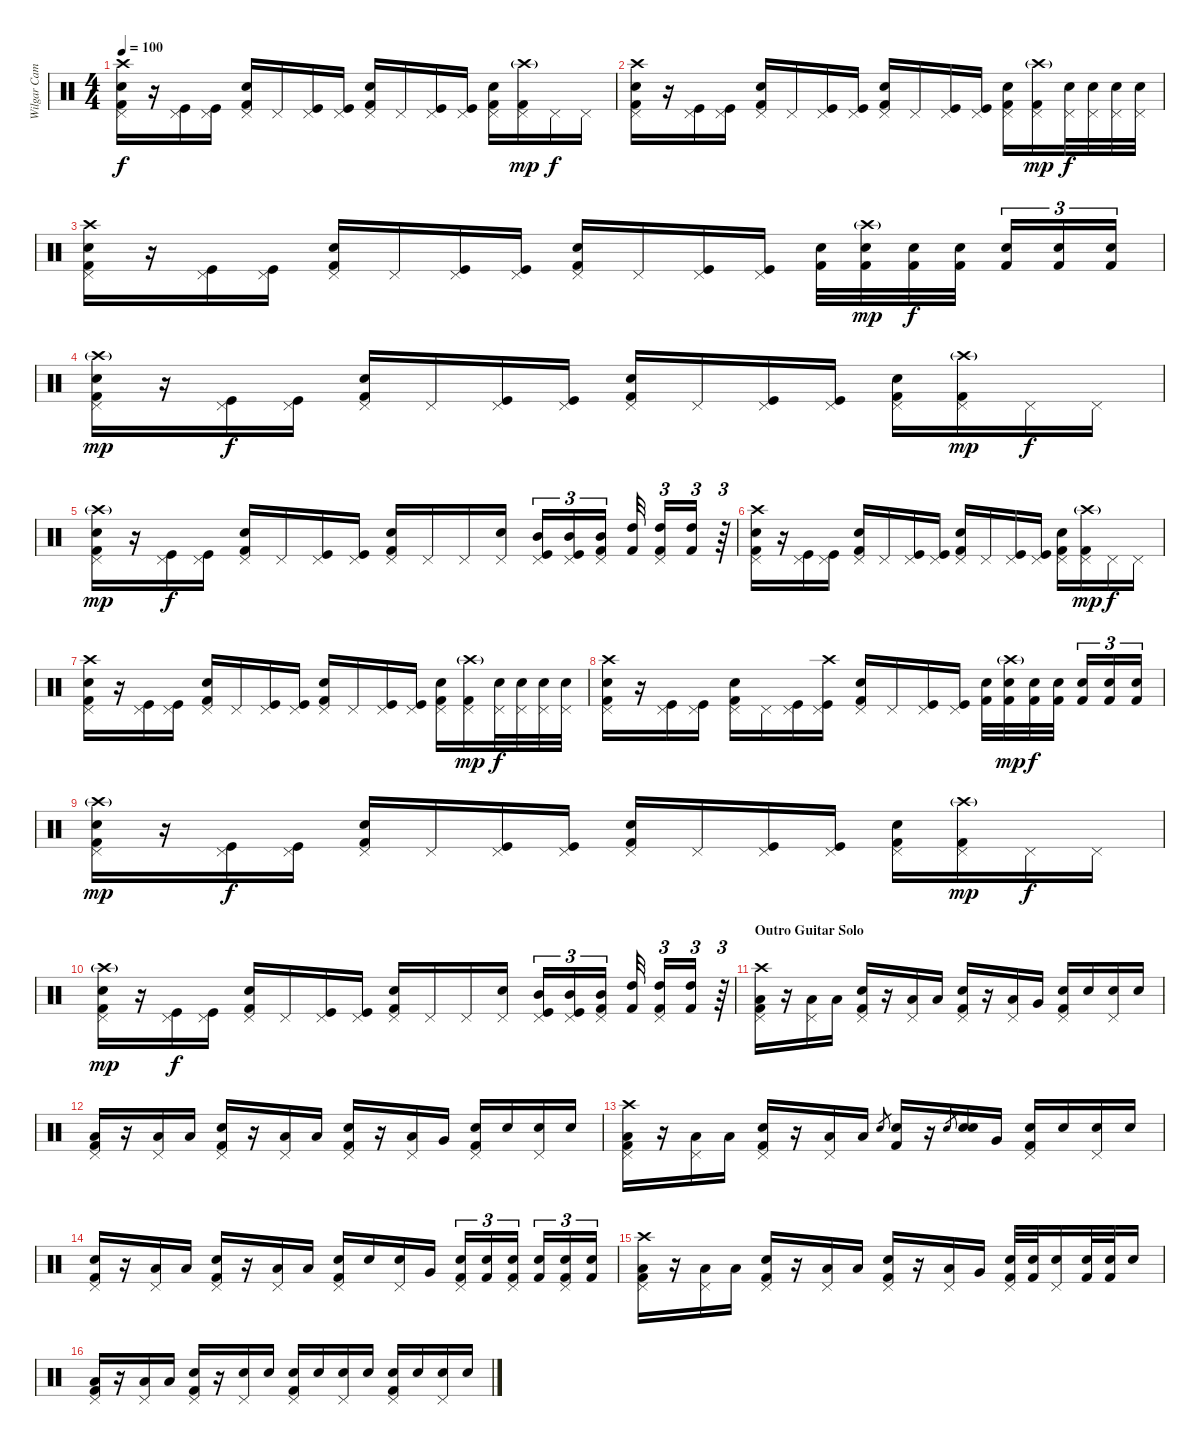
\track ("Wilgar Campbell" "Wilgar Cam") {instrument percussion}
\staff {score}
\articulation defaults
\ts (4 4)
\tempo 100
\clef neutral
\ks c
("Crash high (hit)" "Snare (hit) 2" "Pedal Hi-Hat (hit)" "Kick (hit) 2").16{dy f} r.16 ("Pedal Hi-Hat (hit)" "Kick (hit)").16 ("Pedal Hi-Hat (hit)" "Kick (hit)").16 ("Snare (hit) 2" "Pedal Hi-Hat (hit)" "Kick (hit) 2").16 "Pedal Hi-Hat (hit)".16 ("Pedal Hi-Hat (hit)" "Kick (hit)").16 ("Pedal Hi-Hat (hit)" "Kick (hit)").16 ("Snare (hit) 2" "Pedal Hi-Hat (hit)" "Kick (hit) 2").16 "Pedal Hi-Hat (hit)".16 ("Pedal Hi-Hat (hit)" "Kick (hit)").16 ("Pedal Hi-Hat (hit)" "Kick (hit)").16 ("Snare (hit) 2" "Pedal Hi-Hat (hit)" "Kick (hit) 2").16 ("Crash high (hit)"{g} "Pedal Hi-Hat (hit)" "Kick (hit) 2").16{dy mp} "Pedal Hi-Hat (hit)".16{dy f} "Pedal Hi-Hat (hit)".16 |
("Crash high (hit)" "Snare (hit) 2" "Pedal Hi-Hat (hit)" "Kick (hit) 2").16 r.16 ("Pedal Hi-Hat (hit)" "Kick (hit)").16 ("Pedal Hi-Hat (hit)" "Kick (hit)").16 ("Snare (hit) 2" "Pedal Hi-Hat (hit)" "Kick (hit) 2").16 "Pedal Hi-Hat (hit)".16 ("Pedal Hi-Hat (hit)" "Kick (hit)").16 ("Pedal Hi-Hat (hit)" "Kick (hit)").16 ("Snare (hit) 2" "Pedal Hi-Hat (hit)" "Kick (hit) 2").16 "Pedal Hi-Hat (hit)".16 ("Pedal Hi-Hat (hit)" "Kick (hit)").16 ("Pedal Hi-Hat (hit)" "Kick (hit)").16 ("Snare (hit) 2" "Pedal Hi-Hat (hit)" "Kick (hit) 2").16 ("Crash high (hit)"{g} "Pedal Hi-Hat (hit)" "Kick (hit) 2").16{dy mp} ("Pedal Hi-Hat (hit)" "Electric Snare (hit)").32{dy f} ("Pedal Hi-Hat (hit)" "Electric Snare (hit)").32 ("Pedal Hi-Hat (hit)" "Electric Snare (hit)").32 ("Pedal Hi-Hat (hit)" "Electric Snare (hit)").32 |
("Crash high (hit)" "Snare (hit) 2" "Pedal Hi-Hat (hit)" "Kick (hit) 2").16 r.16 ("Pedal Hi-Hat (hit)" "Kick (hit)").16 ("Pedal Hi-Hat (hit)" "Kick (hit)").16 ("Snare (hit) 2" "Pedal Hi-Hat (hit)" "Kick (hit) 2").16 "Pedal Hi-Hat (hit)".16 ("Pedal Hi-Hat (hit)" "Kick (hit)").16 ("Pedal Hi-Hat (hit)" "Kick (hit)").16 ("Snare (hit) 2" "Pedal Hi-Hat (hit)" "Kick (hit) 2").16 "Pedal Hi-Hat (hit)".16 ("Pedal Hi-Hat (hit)" "Kick (hit)").16 ("Pedal Hi-Hat (hit)" "Kick (hit)").16 ("Snare (hit) 2" "Kick (hit) 2").32 ("Crash high (hit)"{g} "Snare (hit) 2" "Kick (hit) 2").32{dy mp} ("Snare (hit) 2" "Kick (hit) 2").32{dy f} ("Snare (hit) 2" "Kick (hit) 2").32 ("Snare (hit) 2" "Kick (hit) 2").16{tu (3 2)} ("Snare (hit) 2" "Kick (hit) 2").16{tu (3 2)} ("Snare (hit) 2" "Kick (hit) 2").16{tu (3 2)} |
("Crash high (hit)"{g} "Snare (hit) 2" "Pedal Hi-Hat (hit)" "Kick (hit) 2").16{dy mp} r.16 ("Pedal Hi-Hat (hit)" "Kick (hit)").16{dy f} ("Pedal Hi-Hat (hit)" "Kick (hit)").16 ("Snare (hit) 2" "Pedal Hi-Hat (hit)" "Kick (hit) 2").16 "Pedal Hi-Hat (hit)".16 ("Pedal Hi-Hat (hit)" "Kick (hit)").16 ("Pedal Hi-Hat (hit)" "Kick (hit)").16 ("Snare (hit) 2" "Pedal Hi-Hat (hit)" "Kick (hit) 2").16 "Pedal Hi-Hat (hit)".16 ("Pedal Hi-Hat (hit)" "Kick (hit)").16 ("Pedal Hi-Hat (hit)" "Kick (hit)").16 ("Snare (hit) 2" "Pedal Hi-Hat (hit)" "Kick (hit) 2").16 ("Crash high (hit)"{g} "Pedal Hi-Hat (hit)" "Kick (hit) 2").16{dy mp} "Pedal Hi-Hat (hit)".16{dy f} "Pedal Hi-Hat (hit)".16 |
("Crash high (hit)"{g} "Snare (hit) 2" "Pedal Hi-Hat (hit)" "Kick (hit) 2").16{dy mp} r.16 ("Pedal Hi-Hat (hit)" "Kick (hit)").16{dy f} ("Pedal Hi-Hat (hit)" "Kick (hit)").16 ("Snare (hit) 2" "Pedal Hi-Hat (hit)" "Kick (hit) 2").16 "Pedal Hi-Hat (hit)".16 ("Pedal Hi-Hat (hit)" "Kick (hit)").16 ("Pedal Hi-Hat (hit)" "Kick (hit)").16 ("Snare (hit) 2" "Pedal Hi-Hat (hit)" "Kick (hit) 2").16 "Pedal Hi-Hat (hit)".16 "Pedal Hi-Hat (hit)".16 ("Electric Snare (hit)" "Pedal Hi-Hat (hit)").16 ("Mid Tom (hit)" "Pedal Hi-Hat (hit)" "Kick (hit)").16{tu (3 2)} ("Mid Tom (hit)" "Pedal Hi-Hat (hit)" "Kick (hit)").16{tu (3 2)} ("Mid Tom (hit)" "Pedal Hi-Hat (hit)" "Kick (hit) 2").16{tu (3 2)} ("High Tom (hit)" "Kick (hit) 2").32 ("High Tom (hit)" "Pedal Hi-Hat (hit)" "Kick (hit) 2").16{tu (3 2)} ("High Tom (hit)" "Kick (hit) 2").16{tu (3 2)} r.64{tu (3 2)} |
("Crash high (hit)" "Snare (hit) 2" "Pedal Hi-Hat (hit)" "Kick (hit) 2").16 r.16 ("Pedal Hi-Hat (hit)" "Kick (hit)").16 ("Pedal Hi-Hat (hit)" "Kick (hit)").16 ("Snare (hit) 2" "Pedal Hi-Hat (hit)" "Kick (hit) 2").16 "Pedal Hi-Hat (hit)".16 ("Pedal Hi-Hat (hit)" "Kick (hit)").16 ("Pedal Hi-Hat (hit)" "Kick (hit)").16 ("Snare (hit) 2" "Pedal Hi-Hat (hit)" "Kick (hit) 2").16 "Pedal Hi-Hat (hit)".16 ("Pedal Hi-Hat (hit)" "Kick (hit)").16 ("Pedal Hi-Hat (hit)" "Kick (hit)").16 ("Snare (hit) 2" "Pedal Hi-Hat (hit)" "Kick (hit) 2").16 ("Crash high (hit)"{g} "Pedal Hi-Hat (hit)" "Kick (hit) 2").16{dy mp} "Pedal Hi-Hat (hit)".16{dy f} "Pedal Hi-Hat (hit)".16 |
("Crash high (hit)" "Snare (hit) 2" "Pedal Hi-Hat (hit)" "Kick (hit) 2").16 r.16 ("Pedal Hi-Hat (hit)" "Kick (hit)").16 ("Pedal Hi-Hat (hit)" "Kick (hit)").16 ("Snare (hit) 2" "Pedal Hi-Hat (hit)" "Kick (hit) 2").16 "Pedal Hi-Hat (hit)".16 ("Pedal Hi-Hat (hit)" "Kick (hit)").16 ("Pedal Hi-Hat (hit)" "Kick (hit)").16 ("Snare (hit) 2" "Pedal Hi-Hat (hit)" "Kick (hit) 2").16 "Pedal Hi-Hat (hit)".16 ("Pedal Hi-Hat (hit)" "Kick (hit)").16 ("Pedal Hi-Hat (hit)" "Kick (hit)").16 ("Snare (hit) 2" "Pedal Hi-Hat (hit)" "Kick (hit) 2").16 ("Crash high (hit)"{g} "Pedal Hi-Hat (hit)" "Kick (hit) 2").16{dy mp} ("Pedal Hi-Hat (hit)" "Electric Snare (hit)").32{dy f} ("Pedal Hi-Hat (hit)" "Electric Snare (hit)").32 ("Pedal Hi-Hat (hit)" "Electric Snare (hit)").32 ("Pedal Hi-Hat (hit)" "Electric Snare (hit)").32 |
("Crash high (hit)" "Snare (hit) 2" "Pedal Hi-Hat (hit)" "Kick (hit) 2").16 r.16 ("Pedal Hi-Hat (hit)" "Kick (hit)").16 ("Pedal Hi-Hat (hit)" "Kick (hit)").16 ("Snare (hit) 2" "Pedal Hi-Hat (hit)" "Kick (hit) 2").16 "Pedal Hi-Hat (hit)".16 ("Pedal Hi-Hat (hit)" "Kick (hit)").16 ("Crash high (hit)" "Pedal Hi-Hat (hit)" "Kick (hit)").16 ("Snare (hit) 2" "Pedal Hi-Hat (hit)" "Kick (hit) 2").16 "Pedal Hi-Hat (hit)".16 ("Pedal Hi-Hat (hit)" "Kick (hit)").16 ("Pedal Hi-Hat (hit)" "Kick (hit)").16 ("Snare (hit) 2" "Kick (hit) 2").32 ("Crash high (hit)"{g} "Snare (hit) 2" "Kick (hit) 2").32{dy mp} ("Snare (hit) 2" "Kick (hit) 2").32{dy f} ("Snare (hit) 2" "Kick (hit) 2").32 ("Snare (hit) 2" "Kick (hit) 2").16{tu (3 2)} ("Snare (hit) 2" "Kick (hit) 2").16{tu (3 2)} ("Snare (hit) 2" "Kick (hit) 2").16{tu (3 2)} |
("Crash high (hit)"{g} "Snare (hit) 2" "Pedal Hi-Hat (hit)" "Kick (hit) 2").16{dy mp} r.16 ("Pedal Hi-Hat (hit)" "Kick (hit)").16{dy f} ("Pedal Hi-Hat (hit)" "Kick (hit)").16 ("Snare (hit) 2" "Pedal Hi-Hat (hit)" "Kick (hit) 2").16 "Pedal Hi-Hat (hit)".16 ("Pedal Hi-Hat (hit)" "Kick (hit)").16 ("Pedal Hi-Hat (hit)" "Kick (hit)").16 ("Snare (hit) 2" "Pedal Hi-Hat (hit)" "Kick (hit) 2").16 "Pedal Hi-Hat (hit)".16 ("Pedal Hi-Hat (hit)" "Kick (hit)").16 ("Pedal Hi-Hat (hit)" "Kick (hit)").16 ("Snare (hit) 2" "Pedal Hi-Hat (hit)" "Kick (hit) 2").16 ("Crash high (hit)"{g} "Pedal Hi-Hat (hit)" "Kick (hit) 2").16{dy mp} "Pedal Hi-Hat (hit)".16{dy f} "Pedal Hi-Hat (hit)".16 |
("Crash high (hit)"{g} "Snare (hit) 2" "Pedal Hi-Hat (hit)" "Kick (hit) 2").16{dy mp} r.16 ("Pedal Hi-Hat (hit)" "Kick (hit)").16{dy f} ("Pedal Hi-Hat (hit)" "Kick (hit)").16 ("Snare (hit) 2" "Pedal Hi-Hat (hit)" "Kick (hit) 2").16 "Pedal Hi-Hat (hit)".16 ("Pedal Hi-Hat (hit)" "Kick (hit)").16 ("Pedal Hi-Hat (hit)" "Kick (hit)").16 ("Snare (hit) 2" "Pedal Hi-Hat (hit)" "Kick (hit) 2").16 "Pedal Hi-Hat (hit)".16 "Pedal Hi-Hat (hit)".16 ("Electric Snare (hit)" "Pedal Hi-Hat (hit)").16 ("Mid Tom (hit)" "Pedal Hi-Hat (hit)" "Kick (hit)").16{tu (3 2)} ("Mid Tom (hit)" "Pedal Hi-Hat (hit)" "Kick (hit)").16{tu (3 2)} ("Mid Tom (hit)" "Pedal Hi-Hat (hit)" "Kick (hit) 2").16{tu (3 2)} ("High Tom (hit)" "Kick (hit) 2").32 ("High Tom (hit)" "Pedal Hi-Hat (hit)" "Kick (hit) 2").16{tu (3 2)} ("High Tom (hit)" "Kick (hit) 2").16{tu (3 2)} r.64{tu (3 2)} |
\section ("" "Outro Guitar Solo")
("Crash high (hit)" "Low Tom (hit)" "Pedal Hi-Hat (hit)" "Kick (hit) 2").16 r.16 ("Low Tom (hit)" "Pedal Hi-Hat (hit)").16 "Low Tom (hit)".16 ("Snare (hit) 2" "Pedal Hi-Hat (hit)" "Kick (hit) 2").16 r.16 ("Low Tom (hit)" "Pedal Hi-Hat (hit)").16 "Low Tom (hit)".16 ("Snare (hit) 2" "Pedal Hi-Hat (hit)" "Kick (hit) 2").16 r.16 ("Low Tom (hit)" "Pedal Hi-Hat (hit)").16 "Very Low Tom (hit)".16 ("Electric Snare (hit)" "Pedal Hi-Hat (hit)" "Kick (hit) 2").16 "Electric Snare (hit)".16 ("Electric Snare (hit)" "Pedal Hi-Hat (hit)").16 "Electric Snare (hit)".16 |
("Low Tom (hit)" "Pedal Hi-Hat (hit)" "Kick (hit) 2").16 r.16 ("Low Tom (hit)" "Pedal Hi-Hat (hit)").16 "Low Tom (hit)".16 ("Snare (hit) 2" "Pedal Hi-Hat (hit)" "Kick (hit) 2").16 r.16 ("Low Tom (hit)" "Pedal Hi-Hat (hit)").16 "Low Tom (hit)".16 ("Snare (hit) 2" "Pedal Hi-Hat (hit)" "Kick (hit) 2").16 r.16 ("Low Tom (hit)" "Pedal Hi-Hat (hit)").16 "Very Low Tom (hit)".16 ("Electric Snare (hit)" "Pedal Hi-Hat (hit)" "Kick (hit) 2").16 "Electric Snare (hit)".16 ("Electric Snare (hit)" "Pedal Hi-Hat (hit)").16 "Electric Snare (hit)".16 |
("Crash high (hit)" "Low Tom (hit)" "Pedal Hi-Hat (hit)" "Kick (hit) 2").16 r.16 ("Low Tom (hit)" "Pedal Hi-Hat (hit)").16 "Low Tom (hit)".16 ("Snare (hit) 2" "Pedal Hi-Hat (hit)" "Kick (hit) 2").16 r.16 ("Low Tom (hit)" "Pedal Hi-Hat (hit)").16 "Low Tom (hit)".16 "Snare (hit) 2".8{gr} ("Snare (hit) 2" "Kick (hit) 2").16 r.16 "Snare (hit) 2".8{gr} ("Snare (hit) 2" "Snare (hit) 2").16 "Very Low Tom (hit)".16 ("Electric Snare (hit)" "Pedal Hi-Hat (hit)" "Kick (hit) 2").16 "Electric Snare (hit)".16 ("Electric Snare (hit)" "Pedal Hi-Hat (hit)").16 "Electric Snare (hit)".16 |
("Snare (hit) 2" "Pedal Hi-Hat (hit)" "Kick (hit) 2").16 r.16 ("Low Tom (hit)" "Pedal Hi-Hat (hit)").16 "Low Tom (hit)".16 ("Snare (hit) 2" "Pedal Hi-Hat (hit)" "Kick (hit) 2").16 r.16 ("Low Tom (hit)" "Pedal Hi-Hat (hit)").16 "Low Tom (hit)".16 ("Snare (hit) 2" "Pedal Hi-Hat (hit)" "Kick (hit) 2").16 "Snare (hit) 2".16 ("Snare (hit) 2" "Pedal Hi-Hat (hit)").16 "Very Low Tom (hit)".16 ("Electric Snare (hit)" "Pedal Hi-Hat (hit)" "Kick (hit) 2").16{tu (3 2)} ("Electric Snare (hit)" "Kick (hit) 2").16{tu (3 2)} ("Electric Snare (hit)" "Pedal Hi-Hat (hit)" "Kick (hit) 2").16{tu (3 2)} ("Electric Snare (hit)" "Kick (hit) 2").16{tu (3 2)} ("Electric Snare (hit)" "Pedal Hi-Hat (hit)" "Kick (hit) 2").16{tu (3 2)} ("Electric Snare (hit)" "Kick (hit) 2").16{tu (3 2)} |
("Crash high (hit)" "Low Tom (hit)" "Pedal Hi-Hat (hit)" "Kick (hit) 2").16 r.16 ("Low Tom (hit)" "Pedal Hi-Hat (hit)").16 "Low Tom (hit)".16 ("Snare (hit) 2" "Pedal Hi-Hat (hit)" "Kick (hit) 2").16 r.16 ("Low Tom (hit)" "Pedal Hi-Hat (hit)").16 "Low Tom (hit)".16 ("Snare (hit) 2" "Pedal Hi-Hat (hit)" "Kick (hit) 2").16 r.16 ("Low Tom (hit)" "Pedal Hi-Hat (hit)").16 "Very Low Tom (hit)".16 ("Electric Snare (hit)" "Pedal Hi-Hat (hit)" "Kick (hit) 2").32 ("Electric Snare (hit)" "Kick (hit) 2").32 ("Electric Snare (hit)" "Pedal Hi-Hat (hit)").16 ("Electric Snare (hit)" "Kick (hit) 2").32 ("Electric Snare (hit)" "Kick (hit) 2").32 "Electric Snare (hit)".16 |
("Low Tom (hit)" "Pedal Hi-Hat (hit)" "Kick (hit) 2").16 r.16 ("Low Tom (hit)" "Pedal Hi-Hat (hit)").16 "Low Tom (hit)".16 ("Snare (hit) 2" "Pedal Hi-Hat (hit)" "Kick (hit) 2").16 r.16 ("Snare (hit) 2" "Pedal Hi-Hat (hit)").16 "Snare (hit) 2".16 ("Electric Snare (hit)" "Pedal Hi-Hat (hit)" "Kick (hit) 2").16 "Snare (hit) 2".16 ("Snare (hit) 2" "Pedal Hi-Hat (hit)").16 "Snare (hit) 2".16 ("Snare (hit) 2" "Pedal Hi-Hat (hit)" "Kick (hit) 2").16 "Electric Snare (hit)".16 ("Electric Snare (hit)" "Pedal Hi-Hat (hit)").16 "Electric Snare (hit)".16
